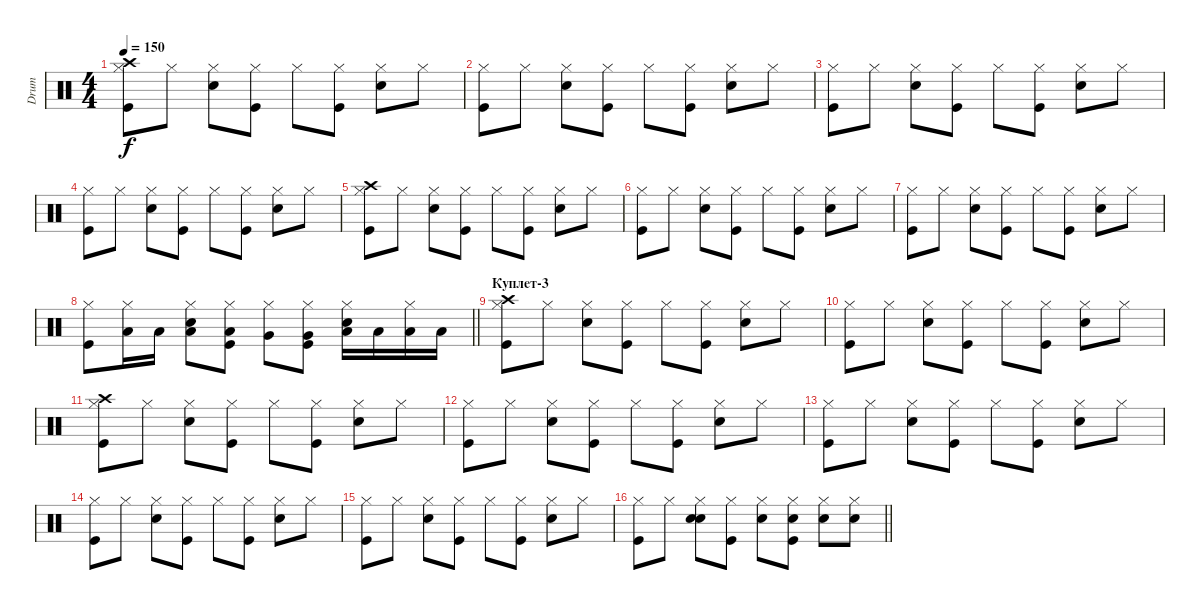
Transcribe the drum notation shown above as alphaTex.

\track ("Drum" "Drum") {instrument percussion}
\staff {score}
\articulation defaults
\ts (4 4)
\tempo 150
\clef neutral
\ks c
("Kick (hit)" "Hi-Hat (closed)" "Crash high (hit)").8{dy f} "Hi-Hat (closed)".8 ("Snare (hit) 2" "Hi-Hat (closed)").8 ("Kick (hit)" "Hi-Hat (closed)").8 "Hi-Hat (closed)".8 ("Kick (hit)" "Hi-Hat (closed)").8 ("Snare (hit) 2" "Hi-Hat (closed)").8 "Hi-Hat (closed)".8 |
("Kick (hit)" "Hi-Hat (closed)").8 "Hi-Hat (closed)".8 ("Snare (hit) 2" "Hi-Hat (closed)").8 ("Kick (hit)" "Hi-Hat (closed)").8 "Hi-Hat (closed)".8 ("Kick (hit)" "Hi-Hat (closed)").8 ("Snare (hit) 2" "Hi-Hat (closed)").8 "Hi-Hat (closed)".8 |
("Kick (hit)" "Hi-Hat (closed)").8 "Hi-Hat (closed)".8 ("Snare (hit) 2" "Hi-Hat (closed)").8 ("Kick (hit)" "Hi-Hat (closed)").8 "Hi-Hat (closed)".8 ("Kick (hit)" "Hi-Hat (closed)").8 ("Snare (hit) 2" "Hi-Hat (closed)").8 "Hi-Hat (closed)".8 |
("Kick (hit)" "Hi-Hat (closed)").8 "Hi-Hat (closed)".8 ("Snare (hit) 2" "Hi-Hat (closed)").8 ("Kick (hit)" "Hi-Hat (closed)").8 "Hi-Hat (closed)".8 ("Kick (hit)" "Hi-Hat (closed)").8 ("Snare (hit) 2" "Hi-Hat (closed)").8 "Hi-Hat (closed)".8 |
("Kick (hit)" "Hi-Hat (closed)" "Crash high (hit)").8 "Hi-Hat (closed)".8 ("Snare (hit) 2" "Hi-Hat (closed)").8 ("Kick (hit)" "Hi-Hat (closed)").8 "Hi-Hat (closed)".8 ("Kick (hit)" "Hi-Hat (closed)").8 ("Snare (hit) 2" "Hi-Hat (closed)").8 "Hi-Hat (closed)".8 |
("Kick (hit)" "Hi-Hat (closed)").8 "Hi-Hat (closed)".8 ("Snare (hit) 2" "Hi-Hat (closed)").8 ("Kick (hit)" "Hi-Hat (closed)").8 "Hi-Hat (closed)".8 ("Kick (hit)" "Hi-Hat (closed)").8 ("Snare (hit) 2" "Hi-Hat (closed)").8 "Hi-Hat (closed)".8 |
("Kick (hit)" "Hi-Hat (closed)").8 "Hi-Hat (closed)".8 ("Snare (hit) 2" "Hi-Hat (closed)").8 ("Kick (hit)" "Hi-Hat (closed)").8 "Hi-Hat (closed)".8 ("Kick (hit)" "Hi-Hat (closed)").8 ("Snare (hit) 2" "Hi-Hat (closed)").8 "Hi-Hat (closed)".8 |
\barLineRight lightlight
("Kick (hit)" "Hi-Hat (closed)").8 ("Hi-Hat (closed)" "Low Tom (hit)").16 "Low Tom (hit)".16 ("Snare (hit) 2" "Hi-Hat (closed)" "Low Tom (hit)").8 ("Kick (hit)" "Hi-Hat (closed)" "Low Tom (hit)").8 ("Hi-Hat (closed)" "Very Low Tom (hit)").8 ("Kick (hit)" "Hi-Hat (closed)" "Very Low Tom (hit)").8 ("Snare (hit) 2" "Hi-Hat (closed)" "Low Tom (hit)").16 "Low Tom (hit)".16 ("Hi-Hat (closed)" "Low Tom (hit)").16 "Low Tom (hit)".16 |
\section ("" "Куплет-3")
("Kick (hit)" "Hi-Hat (closed)" "Crash high (hit)").8 "Hi-Hat (closed)".8 ("Snare (hit) 2" "Hi-Hat (closed)").8 ("Kick (hit)" "Hi-Hat (closed)").8 "Hi-Hat (closed)".8 ("Kick (hit)" "Hi-Hat (closed)").8 ("Snare (hit) 2" "Hi-Hat (closed)").8 "Hi-Hat (closed)".8 |
("Kick (hit)" "Hi-Hat (closed)").8 "Hi-Hat (closed)".8 ("Snare (hit) 2" "Hi-Hat (closed)").8 ("Kick (hit)" "Hi-Hat (closed)").8 "Hi-Hat (closed)".8 ("Kick (hit)" "Hi-Hat (closed)").8 ("Snare (hit) 2" "Hi-Hat (closed)").8 "Hi-Hat (closed)".8 |
("Kick (hit)" "Hi-Hat (closed)" "Crash high (hit)").8 "Hi-Hat (closed)".8 ("Snare (hit) 2" "Hi-Hat (closed)").8 ("Kick (hit)" "Hi-Hat (closed)").8 "Hi-Hat (closed)".8 ("Kick (hit)" "Hi-Hat (closed)").8 ("Snare (hit) 2" "Hi-Hat (closed)").8 "Hi-Hat (closed)".8 |
("Kick (hit)" "Hi-Hat (closed)").8 "Hi-Hat (closed)".8 ("Snare (hit) 2" "Hi-Hat (closed)").8 ("Kick (hit)" "Hi-Hat (closed)").8 "Hi-Hat (closed)".8 ("Kick (hit)" "Hi-Hat (closed)").8 ("Snare (hit) 2" "Hi-Hat (closed)").8 "Hi-Hat (closed)".8 |
("Kick (hit)" "Hi-Hat (closed)").8 "Hi-Hat (closed)".8 ("Snare (hit) 2" "Hi-Hat (closed)").8 ("Kick (hit)" "Hi-Hat (closed)").8 "Hi-Hat (closed)".8 ("Kick (hit)" "Hi-Hat (closed)").8 ("Snare (hit) 2" "Hi-Hat (closed)").8 "Hi-Hat (closed)".8 |
("Kick (hit)" "Hi-Hat (closed)").8 "Hi-Hat (closed)".8 ("Snare (hit) 2" "Hi-Hat (closed)").8 ("Kick (hit)" "Hi-Hat (closed)").8 "Hi-Hat (closed)".8 ("Kick (hit)" "Hi-Hat (closed)").8 ("Snare (hit) 2" "Hi-Hat (closed)").8 "Hi-Hat (closed)".8 |
("Kick (hit)" "Hi-Hat (closed)").8 "Hi-Hat (closed)".8 ("Snare (hit) 2" "Hi-Hat (closed)").8 ("Kick (hit)" "Hi-Hat (closed)").8 "Hi-Hat (closed)".8 ("Kick (hit)" "Hi-Hat (closed)").8 ("Snare (hit) 2" "Hi-Hat (closed)").8 "Hi-Hat (closed)".8 |
\barLineRight lightlight
("Kick (hit)" "Hi-Hat (closed)").8 "Hi-Hat (closed)".8 ("Snare (hit) 2" "Hi-Hat (closed)" "Hand Clap (hit)").8 ("Kick (hit)" "Hi-Hat (closed)").8 ("Hi-Hat (closed)" "Hand Clap (hit)").8 ("Kick (hit)" "Hi-Hat (closed)" "Hand Clap (hit)").8 ("Snare (hit) 2" "Hi-Hat (closed)").8 ("Hi-Hat (closed)" "Hand Clap (hit)").8
